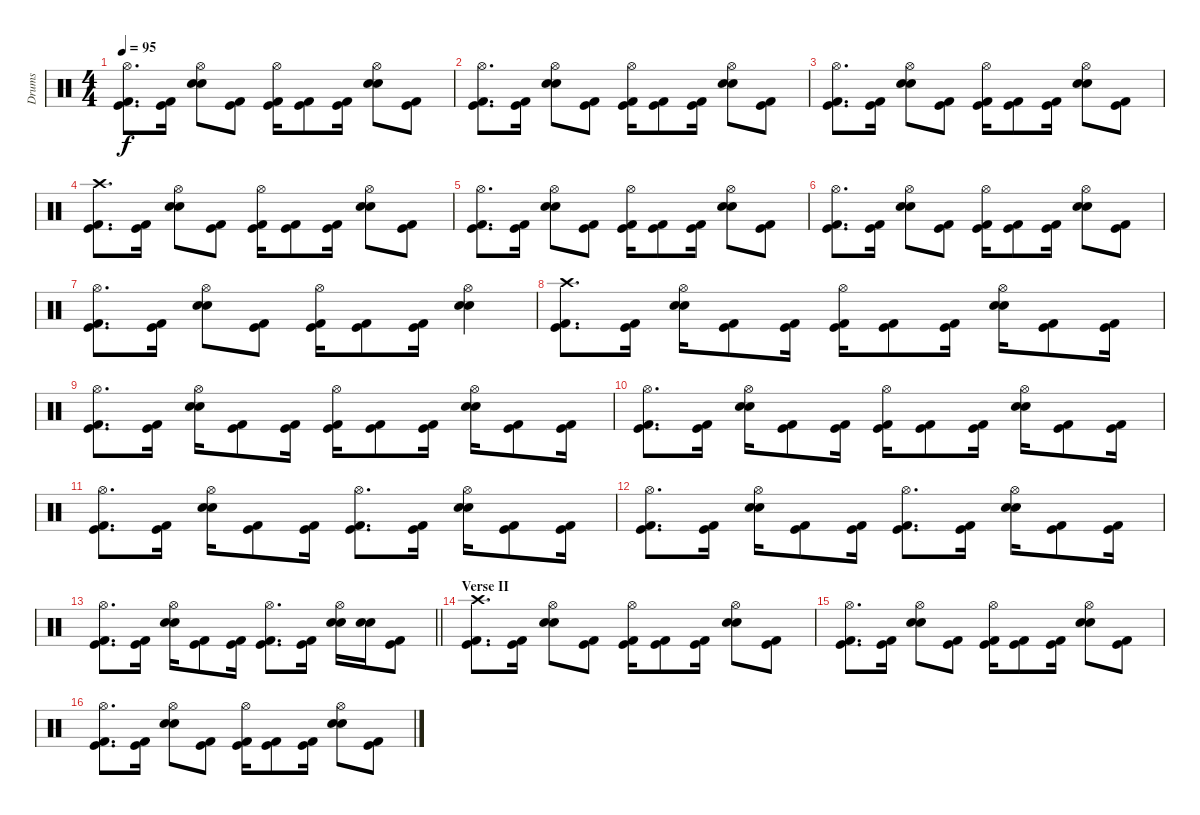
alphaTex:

\track ("Drums" "Drums") {instrument percussion}
\staff {score}
\articulation defaults
\ts (4 4)
\tempo 95
\clef neutral
\ks c
("Hi-Hat (open)" "Kick (hit)" "Kick (hit) 2").8{d dy f} ("Kick (hit)" "Kick (hit) 2").16 ("Hi-Hat (open)" "Snare (hit) 2" "Electric Snare (hit)").8 ("Kick (hit)" "Kick (hit) 2").8 ("Hi-Hat (open)" "Kick (hit)" "Kick (hit) 2").16 ("Kick (hit)" "Kick (hit) 2").8 ("Kick (hit)" "Kick (hit) 2").16 ("Hi-Hat (open)" "Snare (hit) 2" "Electric Snare (hit)").8 ("Kick (hit)" "Kick (hit) 2").8 |
("Hi-Hat (open)" "Kick (hit)" "Kick (hit) 2").8{d} ("Kick (hit)" "Kick (hit) 2").16 ("Hi-Hat (open)" "Snare (hit) 2" "Electric Snare (hit)").8 ("Kick (hit)" "Kick (hit) 2").8 ("Hi-Hat (open)" "Kick (hit)" "Kick (hit) 2").16 ("Kick (hit)" "Kick (hit) 2").8 ("Kick (hit)" "Kick (hit) 2").16 ("Hi-Hat (open)" "Snare (hit) 2" "Electric Snare (hit)").8 ("Kick (hit)" "Kick (hit) 2").8 |
("Hi-Hat (open)" "Kick (hit)" "Kick (hit) 2").8{d} ("Kick (hit)" "Kick (hit) 2").16 ("Hi-Hat (open)" "Snare (hit) 2" "Electric Snare (hit)").8 ("Kick (hit)" "Kick (hit) 2").8 ("Hi-Hat (open)" "Kick (hit)" "Kick (hit) 2").16 ("Kick (hit)" "Kick (hit) 2").8 ("Kick (hit)" "Kick (hit) 2").16 ("Hi-Hat (open)" "Snare (hit) 2" "Electric Snare (hit)").8 ("Kick (hit)" "Kick (hit) 2").8 |
("Crash high (hit)" "Kick (hit)" "Kick (hit) 2").8{d} ("Kick (hit)" "Kick (hit) 2").16 ("Hi-Hat (open)" "Snare (hit) 2" "Electric Snare (hit)").8 ("Kick (hit)" "Kick (hit) 2").8 ("Hi-Hat (open)" "Kick (hit)" "Kick (hit) 2").16 ("Kick (hit)" "Kick (hit) 2").8 ("Kick (hit)" "Kick (hit) 2").16 ("Hi-Hat (open)" "Snare (hit) 2" "Electric Snare (hit)").8 ("Kick (hit)" "Kick (hit) 2").8 |
("Hi-Hat (open)" "Kick (hit)" "Kick (hit) 2").8{d} ("Kick (hit)" "Kick (hit) 2").16 ("Hi-Hat (open)" "Snare (hit) 2" "Electric Snare (hit)").8 ("Kick (hit)" "Kick (hit) 2").8 ("Hi-Hat (open)" "Kick (hit)" "Kick (hit) 2").16 ("Kick (hit)" "Kick (hit) 2").8 ("Kick (hit)" "Kick (hit) 2").16 ("Hi-Hat (open)" "Snare (hit) 2" "Electric Snare (hit)").8 ("Kick (hit)" "Kick (hit) 2").8 |
("Hi-Hat (open)" "Kick (hit)" "Kick (hit) 2").8{d} ("Kick (hit)" "Kick (hit) 2").16 ("Hi-Hat (open)" "Snare (hit) 2" "Electric Snare (hit)").8 ("Kick (hit)" "Kick (hit) 2").8 ("Hi-Hat (open)" "Kick (hit)" "Kick (hit) 2").16 ("Kick (hit)" "Kick (hit) 2").8 ("Kick (hit)" "Kick (hit) 2").16 ("Hi-Hat (open)" "Snare (hit) 2" "Electric Snare (hit)").8 ("Kick (hit)" "Kick (hit) 2").8 |
("Hi-Hat (open)" "Kick (hit)" "Kick (hit) 2").8{d} ("Kick (hit)" "Kick (hit) 2").16 ("Hi-Hat (open)" "Snare (hit) 2" "Electric Snare (hit)").8 ("Kick (hit)" "Kick (hit) 2").8 ("Hi-Hat (open)" "Kick (hit)" "Kick (hit) 2").16 ("Kick (hit)" "Kick (hit) 2").8 ("Kick (hit)" "Kick (hit) 2").16 ("Hi-Hat (open)" "Snare (hit) 2" "Electric Snare (hit)").4 |
("Crash high (hit)" "Kick (hit)" "Kick (hit) 2").8{d} ("Kick (hit)" "Kick (hit) 2").16 ("Hi-Hat (open)" "Snare (hit) 2" "Electric Snare (hit)").16 ("Kick (hit)" "Kick (hit) 2").8 ("Kick (hit)" "Kick (hit) 2").16 ("Hi-Hat (open)" "Kick (hit)" "Kick (hit) 2").16 ("Kick (hit)" "Kick (hit) 2").8 ("Kick (hit)" "Kick (hit) 2").16 ("Hi-Hat (open)" "Snare (hit) 2" "Electric Snare (hit)").16 ("Kick (hit)" "Kick (hit) 2").8 ("Kick (hit)" "Kick (hit) 2").16 |
("Hi-Hat (open)" "Kick (hit)" "Kick (hit) 2").8{d} ("Kick (hit)" "Kick (hit) 2").16 ("Hi-Hat (open)" "Snare (hit) 2" "Electric Snare (hit)").16 ("Kick (hit)" "Kick (hit) 2").8 ("Kick (hit)" "Kick (hit) 2").16 ("Hi-Hat (open)" "Kick (hit)" "Kick (hit) 2").16 ("Kick (hit)" "Kick (hit) 2").8 ("Kick (hit)" "Kick (hit) 2").16 ("Hi-Hat (open)" "Snare (hit) 2" "Electric Snare (hit)").16 ("Kick (hit)" "Kick (hit) 2").8 ("Kick (hit)" "Kick (hit) 2").16 |
("Hi-Hat (open)" "Kick (hit)" "Kick (hit) 2").8{d} ("Kick (hit)" "Kick (hit) 2").16 ("Hi-Hat (open)" "Snare (hit) 2" "Electric Snare (hit)").16 ("Kick (hit)" "Kick (hit) 2").8 ("Kick (hit)" "Kick (hit) 2").16 ("Hi-Hat (open)" "Kick (hit)" "Kick (hit) 2").16 ("Kick (hit)" "Kick (hit) 2").8 ("Kick (hit)" "Kick (hit) 2").16 ("Hi-Hat (open)" "Snare (hit) 2" "Electric Snare (hit)").16 ("Kick (hit)" "Kick (hit) 2").8 ("Kick (hit)" "Kick (hit) 2").16 |
("Hi-Hat (open)" "Kick (hit)" "Kick (hit) 2").8{d} ("Kick (hit)" "Kick (hit) 2").16 ("Hi-Hat (open)" "Snare (hit) 2" "Electric Snare (hit)").16 ("Kick (hit)" "Kick (hit) 2").8 ("Kick (hit)" "Kick (hit) 2").16 ("Hi-Hat (open)" "Kick (hit)" "Kick (hit) 2").8{d} ("Kick (hit)" "Kick (hit) 2").16 ("Hi-Hat (open)" "Snare (hit) 2" "Electric Snare (hit)").16 ("Kick (hit)" "Kick (hit) 2").8 ("Kick (hit)" "Kick (hit) 2").16 |
("Hi-Hat (open)" "Kick (hit)" "Kick (hit) 2").8{d} ("Kick (hit)" "Kick (hit) 2").16 ("Hi-Hat (open)" "Snare (hit) 2" "Electric Snare (hit)").16 ("Kick (hit)" "Kick (hit) 2").8 ("Kick (hit)" "Kick (hit) 2").16 ("Hi-Hat (open)" "Kick (hit)" "Kick (hit) 2").8{d} ("Kick (hit)" "Kick (hit) 2").16 ("Hi-Hat (open)" "Snare (hit) 2" "Electric Snare (hit)").16 ("Kick (hit)" "Kick (hit) 2").8 ("Kick (hit)" "Kick (hit) 2").16 |
\barLineRight lightlight
("Hi-Hat (open)" "Kick (hit)" "Kick (hit) 2").8{d} ("Kick (hit)" "Kick (hit) 2").16 ("Hi-Hat (open)" "Snare (hit) 2" "Electric Snare (hit)").16 ("Kick (hit)" "Kick (hit) 2").8 ("Kick (hit)" "Kick (hit) 2").16 ("Hi-Hat (open)" "Kick (hit)" "Kick (hit) 2").8{d} ("Kick (hit)" "Kick (hit) 2").16 ("Hi-Hat (open)" "Snare (hit) 2" "Electric Snare (hit)").16 ("Snare (hit) 2" "Electric Snare (hit)").16 ("Kick (hit)" "Kick (hit) 2").8 |
\section ("" "Verse II")
("Crash high (hit)" "Kick (hit)" "Kick (hit) 2").8{d} ("Kick (hit)" "Kick (hit) 2").16 ("Hi-Hat (open)" "Snare (hit) 2" "Electric Snare (hit)").8 ("Kick (hit)" "Kick (hit) 2").8 ("Hi-Hat (open)" "Kick (hit)" "Kick (hit) 2").16 ("Kick (hit)" "Kick (hit) 2").8 ("Kick (hit)" "Kick (hit) 2").16 ("Hi-Hat (open)" "Snare (hit) 2" "Electric Snare (hit)").8 ("Kick (hit)" "Kick (hit) 2").8 |
("Hi-Hat (open)" "Kick (hit)" "Kick (hit) 2").8{d} ("Kick (hit)" "Kick (hit) 2").16 ("Hi-Hat (open)" "Snare (hit) 2" "Electric Snare (hit)").8 ("Kick (hit)" "Kick (hit) 2").8 ("Hi-Hat (open)" "Kick (hit)" "Kick (hit) 2").16 ("Kick (hit)" "Kick (hit) 2").8 ("Kick (hit)" "Kick (hit) 2").16 ("Hi-Hat (open)" "Snare (hit) 2" "Electric Snare (hit)").8 ("Kick (hit)" "Kick (hit) 2").8 |
("Hi-Hat (open)" "Kick (hit)" "Kick (hit) 2").8{d} ("Kick (hit)" "Kick (hit) 2").16 ("Hi-Hat (open)" "Snare (hit) 2" "Electric Snare (hit)").8 ("Kick (hit)" "Kick (hit) 2").8 ("Hi-Hat (open)" "Kick (hit)" "Kick (hit) 2").16 ("Kick (hit)" "Kick (hit) 2").8 ("Kick (hit)" "Kick (hit) 2").16 ("Hi-Hat (open)" "Snare (hit) 2" "Electric Snare (hit)").8 ("Kick (hit)" "Kick (hit) 2").8
